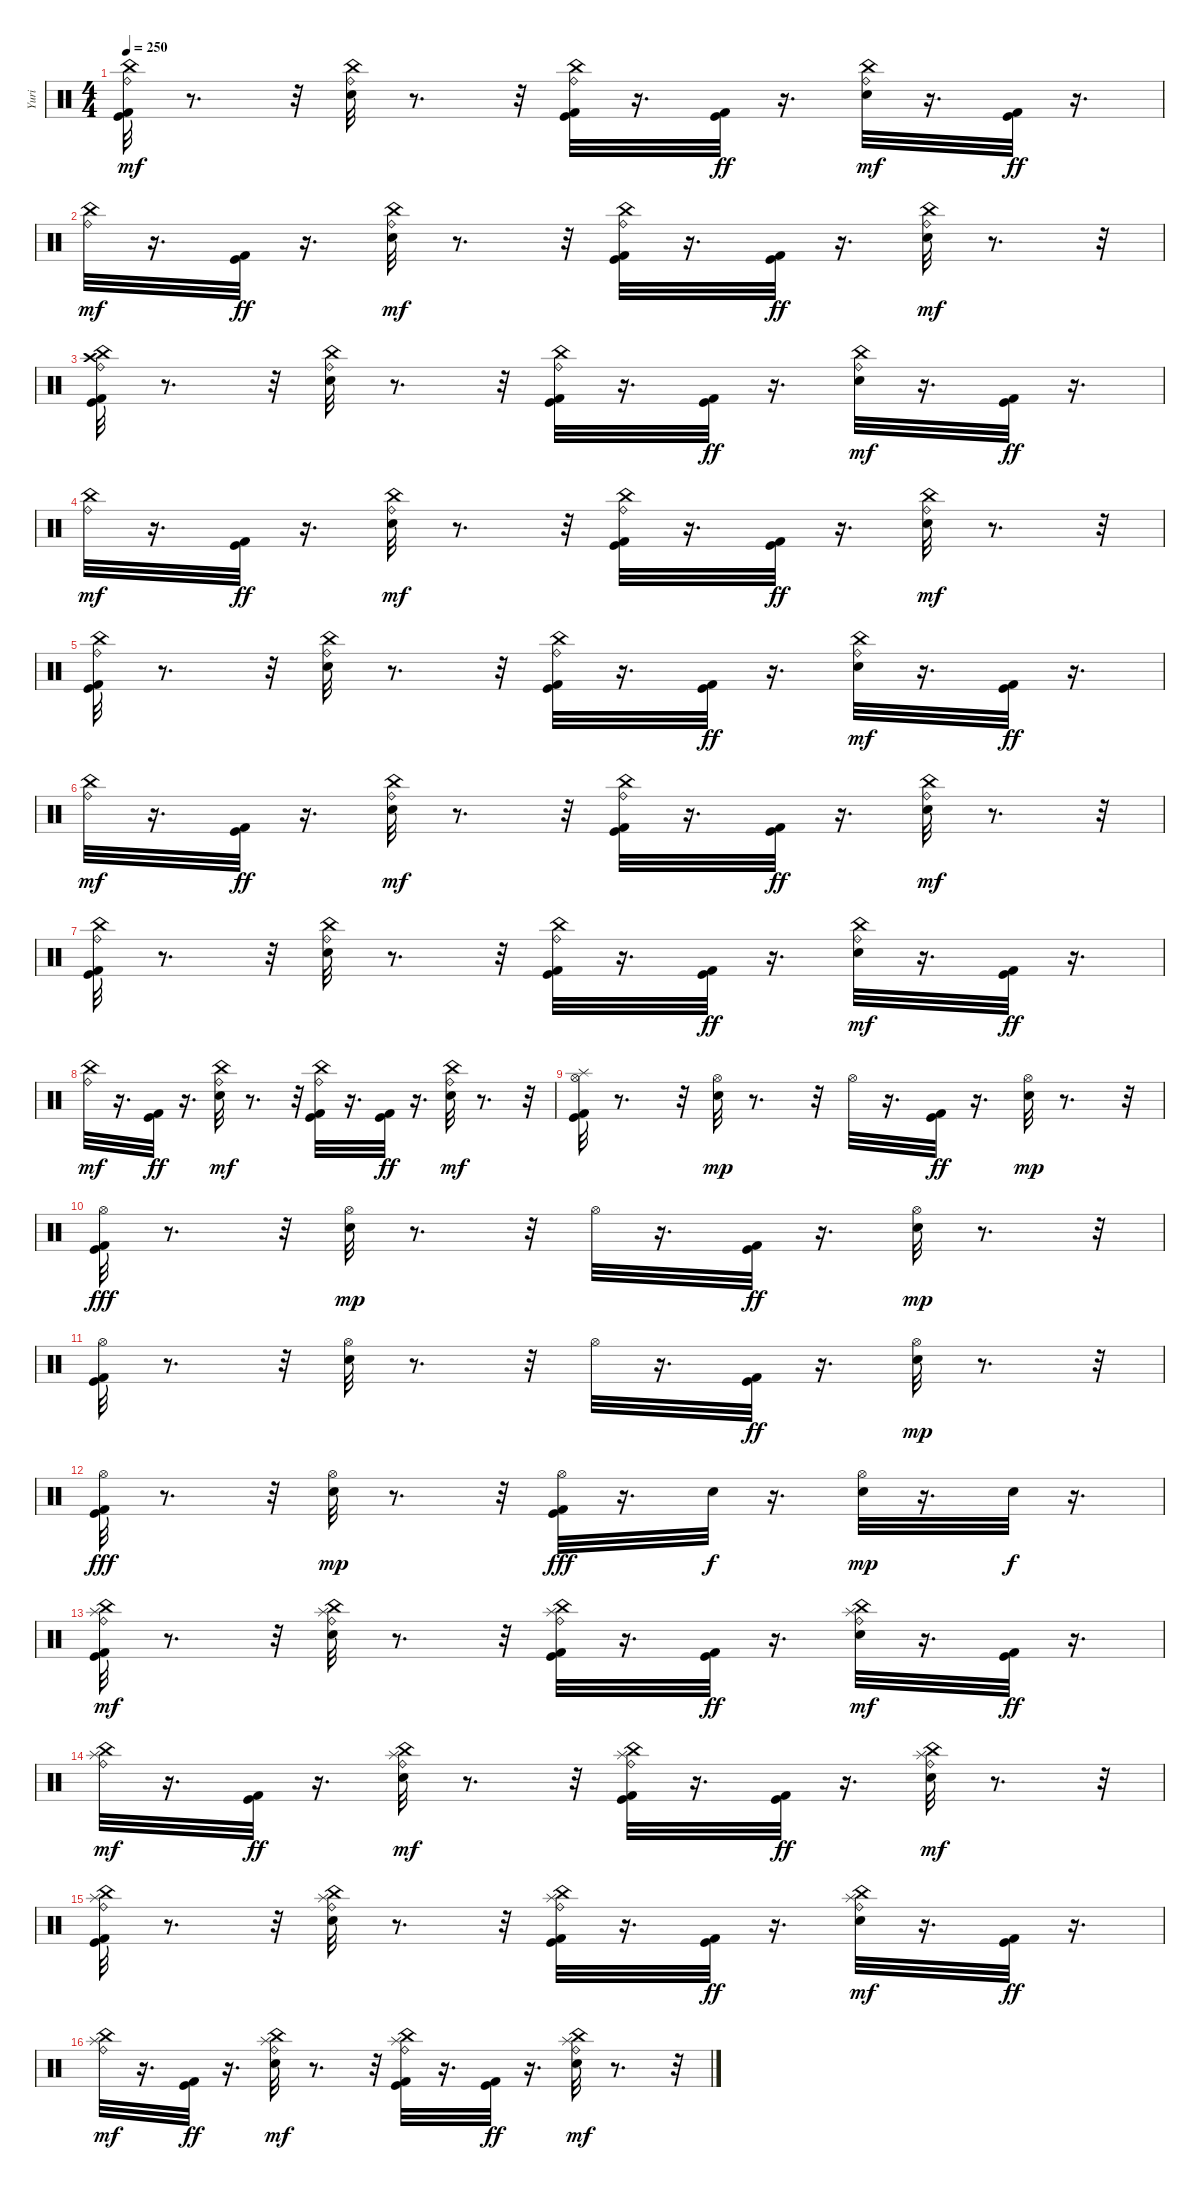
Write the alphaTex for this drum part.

\track ("Yuri" "Yuri") {instrument percussion}
\staff {score}
\articulation defaults
\ts (4 4)
\tempo 250
\clef neutral
\ks c
("Kick (hit) 2" "Kick (hit)" "Ride (bell)" "China (hit)").32{dy mf} r.8{d} r.32 ("Snare (hit) 2" "Ride (bell)" "China (hit)").32 r.8{d} r.32 ("Kick (hit) 2" "Kick (hit)" "Ride (bell)" "China (hit)").32 r.16{d} ("Kick (hit) 2" "Kick (hit)").32{dy ff} r.16{d} ("Snare (hit) 2" "Ride (bell)" "China (hit)").32{dy mf} r.16{d} ("Kick (hit) 2" "Kick (hit)").32{dy ff} r.16{d} |
("Ride (bell)" "China (hit)").32{dy mf} r.16{d} ("Kick (hit) 2" "Kick (hit)").32{dy ff} r.16{d} ("Snare (hit) 2" "Ride (bell)" "China (hit)").32{dy mf} r.8{d} r.32 ("Kick (hit) 2" "Kick (hit)" "Ride (bell)" "China (hit)").32 r.16{d} ("Kick (hit) 2" "Kick (hit)").32{dy ff} r.16{d} ("Snare (hit) 2" "Ride (bell)" "China (hit)").32{dy mf} r.8{d} r.32 |
("Kick (hit) 2" "Kick (hit)" "Crash high (hit)" "Ride (bell)" "China (hit)").32 r.8{d} r.32 ("Snare (hit) 2" "Ride (bell)" "China (hit)").32 r.8{d} r.32 ("Kick (hit) 2" "Kick (hit)" "Ride (bell)" "China (hit)").32 r.16{d} ("Kick (hit) 2" "Kick (hit)").32{dy ff} r.16{d} ("Snare (hit) 2" "Ride (bell)" "China (hit)").32{dy mf} r.16{d} ("Kick (hit) 2" "Kick (hit)").32{dy ff} r.16{d} |
("Ride (bell)" "China (hit)").32{dy mf} r.16{d} ("Kick (hit) 2" "Kick (hit)").32{dy ff} r.16{d} ("Snare (hit) 2" "Ride (bell)" "China (hit)").32{dy mf} r.8{d} r.32 ("Kick (hit) 2" "Kick (hit)" "Ride (bell)" "China (hit)").32 r.16{d} ("Kick (hit) 2" "Kick (hit)").32{dy ff} r.16{d} ("Snare (hit) 2" "Ride (bell)" "China (hit)").32{dy mf} r.8{d} r.32 |
("Kick (hit) 2" "Kick (hit)" "Ride (bell)" "China (hit)").32 r.8{d} r.32 ("Snare (hit) 2" "Ride (bell)" "China (hit)").32 r.8{d} r.32 ("Kick (hit) 2" "Kick (hit)" "Ride (bell)" "China (hit)").32 r.16{d} ("Kick (hit) 2" "Kick (hit)").32{dy ff} r.16{d} ("Snare (hit) 2" "Ride (bell)" "China (hit)").32{dy mf} r.16{d} ("Kick (hit) 2" "Kick (hit)").32{dy ff} r.16{d} |
("Ride (bell)" "China (hit)").32{dy mf} r.16{d} ("Kick (hit) 2" "Kick (hit)").32{dy ff} r.16{d} ("Snare (hit) 2" "Ride (bell)" "China (hit)").32{dy mf} r.8{d} r.32 ("Kick (hit) 2" "Kick (hit)" "Ride (bell)" "China (hit)").32 r.16{d} ("Kick (hit) 2" "Kick (hit)").32{dy ff} r.16{d} ("Snare (hit) 2" "Ride (bell)" "China (hit)").32{dy mf} r.8{d} r.32 |
("Kick (hit) 2" "Kick (hit)" "Ride (bell)" "China (hit)").32 r.8{d} r.32 ("Snare (hit) 2" "Ride (bell)" "China (hit)").32 r.8{d} r.32 ("Kick (hit) 2" "Kick (hit)" "Ride (bell)" "China (hit)").32 r.16{d} ("Kick (hit) 2" "Kick (hit)").32{dy ff} r.16{d} ("Snare (hit) 2" "Ride (bell)" "China (hit)").32{dy mf} r.16{d} ("Kick (hit) 2" "Kick (hit)").32{dy ff} r.16{d} |
("Ride (bell)" "China (hit)").32{dy mf} r.16{d} ("Kick (hit) 2" "Kick (hit)").32{dy ff} r.16{d} ("Snare (hit) 2" "Ride (bell)" "China (hit)").32{dy mf} r.8{d} r.32 ("Kick (hit) 2" "Kick (hit)" "Ride (bell)" "China (hit)").32 r.16{d} ("Kick (hit) 2" "Kick (hit)").32{dy ff} r.16{d} ("Snare (hit) 2" "Ride (bell)" "China (hit)").32{dy mf} r.8{d} r.32 |
("Kick (hit) 2" "Kick (hit)" "Hi-Hat (open)" "Splash (hit)").32 r.8{d} r.32 ("Snare (hit) 2" "Hi-Hat (open)").32{dy mp} r.8{d} r.32 "Hi-Hat (open)".32 r.16{d} ("Kick (hit) 2" "Kick (hit)").32{dy ff} r.16{d} ("Snare (hit) 2" "Hi-Hat (open)").32{dy mp} r.8{d} r.32 |
("Hi-Hat (open)" "Kick (hit) 2" "Kick (hit)").32{dy fff} r.8{d} r.32 ("Snare (hit) 2" "Hi-Hat (open)").32{dy mp} r.8{d} r.32 "Hi-Hat (open)".32 r.16{d} ("Kick (hit) 2" "Kick (hit)").32{dy ff} r.16{d} ("Snare (hit) 2" "Hi-Hat (open)").32{dy mp} r.8{d} r.32 |
("Kick (hit) 2" "Kick (hit)" "Hi-Hat (open)").32 r.8{d} r.32 ("Snare (hit) 2" "Hi-Hat (open)").32 r.8{d} r.32 "Hi-Hat (open)".32 r.16{d} ("Kick (hit) 2" "Kick (hit)").32{dy ff} r.16{d} ("Snare (hit) 2" "Hi-Hat (open)").32{dy mp} r.8{d} r.32 |
("Hi-Hat (open)" "Kick (hit) 2" "Kick (hit)").32{dy fff} r.8{d} r.32 ("Snare (hit) 2" "Hi-Hat (open)").32{dy mp} r.8{d} r.32 ("Hi-Hat (open)" "Kick (hit) 2" "Kick (hit)").32{dy fff} r.16{d} "Snare (hit) 2".32{dy f} r.16{d} ("Snare (hit) 2" "Hi-Hat (open)").32{dy mp} r.16{d} "Snare (hit) 2".32{dy f} r.16{d} |
("Kick (hit) 2" "Kick (hit)" "Ride (bell)" "China (hit)" "Splash (hit)").32{dy mf} r.8{d} r.32 ("Snare (hit) 2" "Ride (bell)" "China (hit)" "Splash (hit)").32 r.8{d} r.32 ("Kick (hit) 2" "Kick (hit)" "Ride (bell)" "China (hit)" "Splash (hit)").32 r.16{d} ("Kick (hit) 2" "Kick (hit)").32{dy ff} r.16{d} ("Snare (hit) 2" "Ride (bell)" "China (hit)" "Splash (hit)").32{dy mf} r.16{d} ("Kick (hit) 2" "Kick (hit)").32{dy ff} r.16{d} |
("Ride (bell)" "China (hit)" "Splash (hit)").32{dy mf} r.16{d} ("Kick (hit) 2" "Kick (hit)").32{dy ff} r.16{d} ("Snare (hit) 2" "Ride (bell)" "China (hit)" "Splash (hit)").32{dy mf} r.8{d} r.32 ("Kick (hit) 2" "Kick (hit)" "Ride (bell)" "China (hit)" "Splash (hit)").32 r.16{d} ("Kick (hit) 2" "Kick (hit)").32{dy ff} r.16{d} ("Snare (hit) 2" "Ride (bell)" "China (hit)" "Splash (hit)").32{dy mf} r.8{d} r.32 |
("Kick (hit) 2" "Kick (hit)" "Ride (bell)" "China (hit)" "Splash (hit)").32 r.8{d} r.32 ("Snare (hit) 2" "Ride (bell)" "China (hit)" "Splash (hit)").32 r.8{d} r.32 ("Kick (hit) 2" "Kick (hit)" "Ride (bell)" "China (hit)" "Splash (hit)").32 r.16{d} ("Kick (hit) 2" "Kick (hit)").32{dy ff} r.16{d} ("Snare (hit) 2" "Ride (bell)" "China (hit)" "Splash (hit)").32{dy mf} r.16{d} ("Kick (hit) 2" "Kick (hit)").32{dy ff} r.16{d} |
("Ride (bell)" "China (hit)" "Splash (hit)").32{dy mf} r.16{d} ("Kick (hit) 2" "Kick (hit)").32{dy ff} r.16{d} ("Snare (hit) 2" "Ride (bell)" "China (hit)" "Splash (hit)").32{dy mf} r.8{d} r.32 ("Kick (hit) 2" "Kick (hit)" "Ride (bell)" "China (hit)" "Splash (hit)").32 r.16{d} ("Kick (hit) 2" "Kick (hit)").32{dy ff} r.16{d} ("Snare (hit) 2" "Ride (bell)" "China (hit)" "Splash (hit)").32{dy mf} r.8{d} r.32
